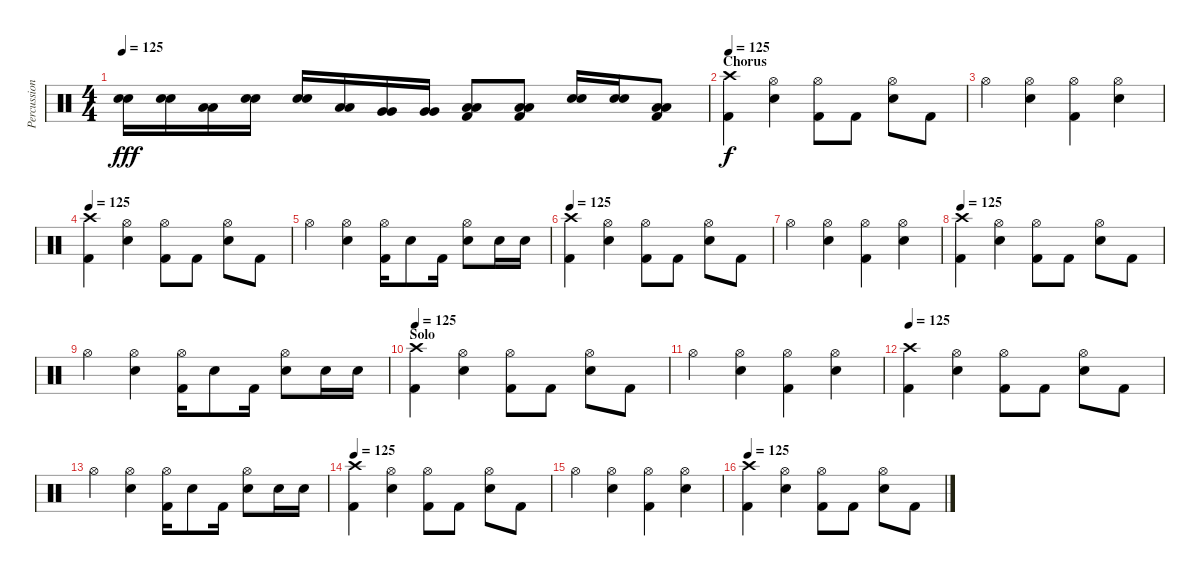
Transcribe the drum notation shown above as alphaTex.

\track ("Percussion" "Percussion") {instrument percussion}
\staff {score}
\articulation defaults
\ts (4 4)
\tempo 125
\clef neutral
\ks c
("Electric Snare (hit)" "Electric Snare (hit)").16{dy fff volume 16} ("Electric Snare (hit)" "Electric Snare (hit)").16 ("Low Tom (hit)" "Low Tom (hit)").16 ("Electric Snare (hit)" "Electric Snare (hit)").16 ("Electric Snare (hit)" "Electric Snare (hit)").16 ("Low Tom (hit)" "Low Tom (hit)").16 ("Very Low Tom (hit)" "Very Low Tom (hit)").16 ("Very Low Tom (hit)" "Very Low Tom (hit)").16 ("Low Tom (hit)" "Low Tom (hit)" "Kick (hit) 2").8 ("Low Tom (hit)" "Low Tom (hit)" "Kick (hit) 2").8 ("Electric Snare (hit)" "Electric Snare (hit)").16 ("Electric Snare (hit)" "Electric Snare (hit)").16 ("Low Tom (hit)" "Low Tom (hit)" "Kick (hit) 2").8 |
\section ("" "Chorus")
\tempo 125
("Crash high (hit)" "Kick (hit) 2").4{dy f volume 13} ("Hi-Hat (open)" "Electric Snare (hit)").4 ("Hi-Hat (open)" "Kick (hit) 2").8 "Kick (hit) 2".8 ("Hi-Hat (open)" "Electric Snare (hit)").8 "Kick (hit) 2".8 |
"Hi-Hat (open)".4 ("Hi-Hat (open)" "Electric Snare (hit)").4 ("Hi-Hat (open)" "Kick (hit) 2").4 ("Hi-Hat (open)" "Electric Snare (hit)").4 |
\tempo 125
("Crash high (hit)" "Kick (hit) 2").4 ("Hi-Hat (open)" "Electric Snare (hit)").4 ("Hi-Hat (open)" "Kick (hit) 2").8 "Kick (hit) 2".8 ("Hi-Hat (open)" "Electric Snare (hit)").8 "Kick (hit) 2".8 |
"Hi-Hat (open)".4 ("Hi-Hat (open)" "Electric Snare (hit)").4 ("Hi-Hat (open)" "Kick (hit) 2").16 "Electric Snare (hit)".8 "Kick (hit) 2".16 ("Hi-Hat (open)" "Electric Snare (hit)").8 "Electric Snare (hit)".16 "Electric Snare (hit)".16 |
\tempo 125
("Crash high (hit)" "Kick (hit) 2").4 ("Hi-Hat (open)" "Electric Snare (hit)").4 ("Hi-Hat (open)" "Kick (hit) 2").8 "Kick (hit) 2".8 ("Hi-Hat (open)" "Electric Snare (hit)").8 "Kick (hit) 2".8 |
"Hi-Hat (open)".4 ("Hi-Hat (open)" "Electric Snare (hit)").4 ("Hi-Hat (open)" "Kick (hit) 2").4 ("Hi-Hat (open)" "Electric Snare (hit)").4 |
\tempo 125
("Crash high (hit)" "Kick (hit) 2").4 ("Hi-Hat (open)" "Electric Snare (hit)").4 ("Hi-Hat (open)" "Kick (hit) 2").8 "Kick (hit) 2".8 ("Hi-Hat (open)" "Electric Snare (hit)").8 "Kick (hit) 2".8 |
"Hi-Hat (open)".4 ("Hi-Hat (open)" "Electric Snare (hit)").4 ("Hi-Hat (open)" "Kick (hit) 2").16 "Electric Snare (hit)".8 "Kick (hit) 2".16 ("Hi-Hat (open)" "Electric Snare (hit)").8 "Electric Snare (hit)".16 "Electric Snare (hit)".16 |
\section ("" "Solo")
\tempo 125
("Crash high (hit)" "Kick (hit) 2").4{volume 13} ("Hi-Hat (open)" "Electric Snare (hit)").4 ("Hi-Hat (open)" "Kick (hit) 2").8 "Kick (hit) 2".8 ("Hi-Hat (open)" "Electric Snare (hit)").8 "Kick (hit) 2".8 |
"Hi-Hat (open)".4 ("Hi-Hat (open)" "Electric Snare (hit)").4 ("Hi-Hat (open)" "Kick (hit) 2").4 ("Hi-Hat (open)" "Electric Snare (hit)").4 |
\tempo 125
("Crash high (hit)" "Kick (hit) 2").4 ("Hi-Hat (open)" "Electric Snare (hit)").4 ("Hi-Hat (open)" "Kick (hit) 2").8 "Kick (hit) 2".8 ("Hi-Hat (open)" "Electric Snare (hit)").8 "Kick (hit) 2".8 |
"Hi-Hat (open)".4 ("Hi-Hat (open)" "Electric Snare (hit)").4 ("Hi-Hat (open)" "Kick (hit) 2").16 "Electric Snare (hit)".8 "Kick (hit) 2".16 ("Hi-Hat (open)" "Electric Snare (hit)").8 "Electric Snare (hit)".16 "Electric Snare (hit)".16 |
\tempo 125
("Crash high (hit)" "Kick (hit) 2").4 ("Hi-Hat (open)" "Electric Snare (hit)").4 ("Hi-Hat (open)" "Kick (hit) 2").8 "Kick (hit) 2".8 ("Hi-Hat (open)" "Electric Snare (hit)").8 "Kick (hit) 2".8 |
"Hi-Hat (open)".4 ("Hi-Hat (open)" "Electric Snare (hit)").4 ("Hi-Hat (open)" "Kick (hit) 2").4 ("Hi-Hat (open)" "Electric Snare (hit)").4 |
\tempo 125
("Crash high (hit)" "Kick (hit) 2").4 ("Hi-Hat (open)" "Electric Snare (hit)").4 ("Hi-Hat (open)" "Kick (hit) 2").8 "Kick (hit) 2".8 ("Hi-Hat (open)" "Electric Snare (hit)").8 "Kick (hit) 2".8
